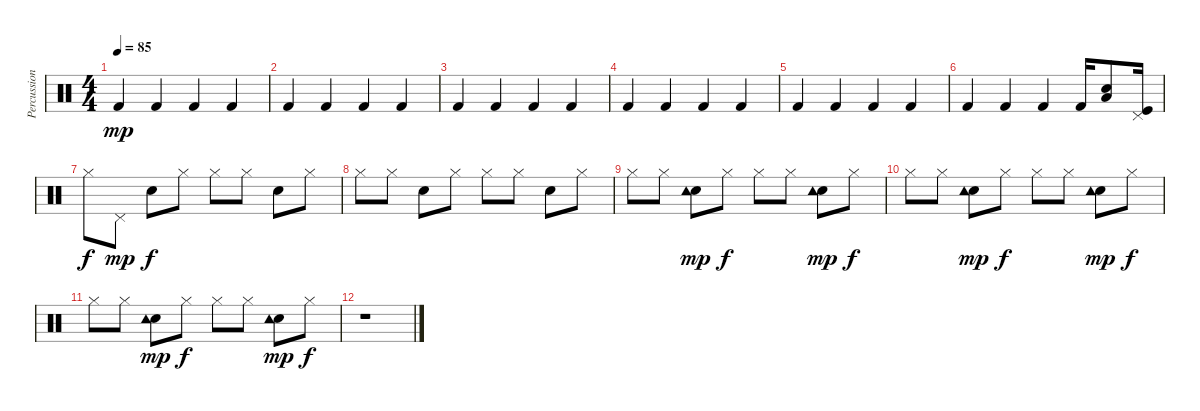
\track ("Percussion" "Percussion") {instrument percussion}
\staff {score}
\articulation defaults
\ts (4 4)
\tempo 85
\clef neutral
\ks c "Kick (hit) 2".4{dy mp} "Kick (hit) 2".4 "Kick (hit) 2".4 "Kick (hit) 2".4
|
"Kick (hit) 2".4 "Kick (hit) 2".4 "Kick (hit) 2".4 "Kick (hit) 2".4 |
"Kick (hit) 2".4 "Kick (hit) 2".4 "Kick (hit) 2".4 "Kick (hit) 2".4 |
"Kick (hit) 2".4 "Kick (hit) 2".4 "Kick (hit) 2".4 "Kick (hit) 2".4 |
"Kick (hit) 2".4 "Kick (hit) 2".4 "Kick (hit) 2".4 "Kick (hit) 2".4 |
"Kick (hit) 2".4 "Kick (hit) 2".4 "Kick (hit) 2".4 "Kick (hit) 2".16 ("Electric Snare (hit)" "Low Floor Tom (hit)").8 ("Kick (hit)" "Pedal Hi-Hat (hit)").16 |
"Hi-Hat (closed)".8{dy f} "Pedal Hi-Hat (hit)".8{dy mp} "Electric Snare (hit)".8{dy f} "Hi-Hat (closed)".8 "Hi-Hat (closed)".8 "Hi-Hat (closed)".8 "Electric Snare (hit)".8 "Hi-Hat (closed)".8 |
"Hi-Hat (closed)".8 "Hi-Hat (closed)".8 "Electric Snare (hit)".8 "Hi-Hat (closed)".8 "Hi-Hat (closed)".8 "Hi-Hat (closed)".8 "Electric Snare (hit)".8 "Hi-Hat (closed)".8 |
"Hi-Hat (closed)".8 "Hi-Hat (closed)".8 ("Electric Snare (hit)" "Tambourine (hit)").8{dy mp} "Hi-Hat (closed)".8{dy f} "Hi-Hat (closed)".8 "Hi-Hat (closed)".8 ("Electric Snare (hit)" "Tambourine (hit)").8{dy mp} "Hi-Hat (closed)".8{dy f} |
"Hi-Hat (closed)".8 "Hi-Hat (closed)".8 ("Electric Snare (hit)" "Tambourine (hit)").8{dy mp} "Hi-Hat (closed)".8{dy f} "Hi-Hat (closed)".8 "Hi-Hat (closed)".8 ("Electric Snare (hit)" "Tambourine (hit)").8{dy mp} "Hi-Hat (closed)".8{dy f} |
"Hi-Hat (closed)".8 "Hi-Hat (closed)".8 ("Electric Snare (hit)" "Tambourine (hit)").8{dy mp} "Hi-Hat (closed)".8{dy f} "Hi-Hat (closed)".8 "Hi-Hat (closed)".8 ("Electric Snare (hit)" "Tambourine (hit)").8{dy mp} "Hi-Hat (closed)".8{dy f} |
r.1
